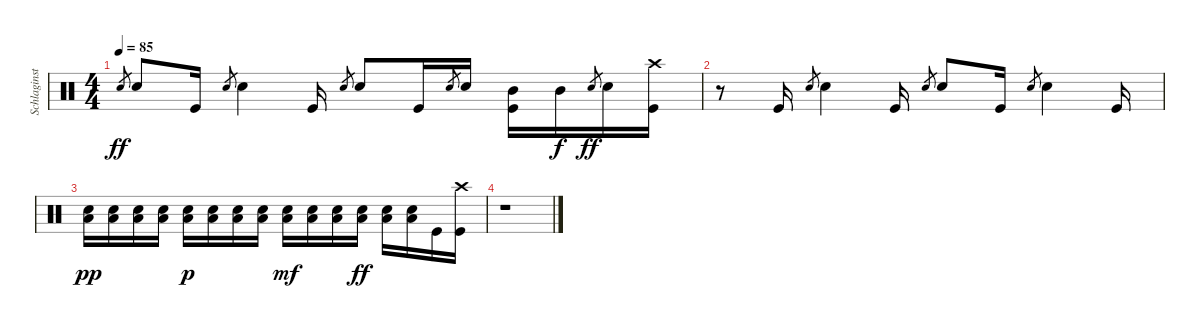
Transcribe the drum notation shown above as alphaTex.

\track ("Schlaginstrumente - Auswahl" "Schlaginst") {instrument percussion}
\staff {score}
\articulation defaults
\ts (4 4)
\tempo 85
\clef neutral
\ks c "Snare (hit) 2".8{gr dy ff} "Snare (hit) 2".8 "Kick (hit)".16 "Snare (hit) 2".8{gr} "Snare (hit) 2".4 "Kick (hit)".16 "Snare (hit) 2".8{gr} "Snare (hit) 2".8 "Kick (hit)".16 "Snare (hit) 2".8{gr} "Snare (hit) 2".16
("Mid Tom (hit)" "Kick (hit)").16 "Mid Tom (hit)".16{dy f} "Snare (hit) 2".8{gr dy ff} "Snare (hit) 2".16 ("Crash high (hit)" "Kick (hit)").16 |
r.8 "Kick (hit)".16 "Snare (hit) 2".8{gr} "Snare (hit) 2".4 "Kick (hit)".16 "Snare (hit) 2".8{gr} "Snare (hit) 2".8 "Kick (hit)".16 "Snare (hit) 2".8{gr} "Snare (hit) 2".4 "Kick (hit)".16 |
("Snare (hit) 2" "Low Floor Tom (hit)").16{dy pp} ("Snare (hit) 2" "Low Floor Tom (hit)").16 ("Snare (hit) 2" "Low Floor Tom (hit)").16 ("Snare (hit) 2" "Low Floor Tom (hit)").16 ("Snare (hit) 2" "Low Floor Tom (hit)").16{dy p} ("Snare (hit) 2" "Low Floor Tom (hit)").16 ("Snare (hit) 2" "Low Floor Tom (hit)").16 ("Snare (hit) 2" "Low Floor Tom (hit)").16 ("Snare (hit) 2" "Low Floor Tom (hit)").16{dy mf} ("Snare (hit) 2" "Low Floor Tom (hit)").16 ("Snare (hit) 2" "Low Floor Tom (hit)").16 ("Snare (hit) 2" "Low Floor Tom (hit)").16{dy ff} ("Snare (hit) 2" "Low Floor Tom (hit)").16 ("Snare (hit) 2" "Low Floor Tom (hit)").16 "Kick (hit)".16 ("Crash high (hit)" "Kick (hit)").16 |
r.1
